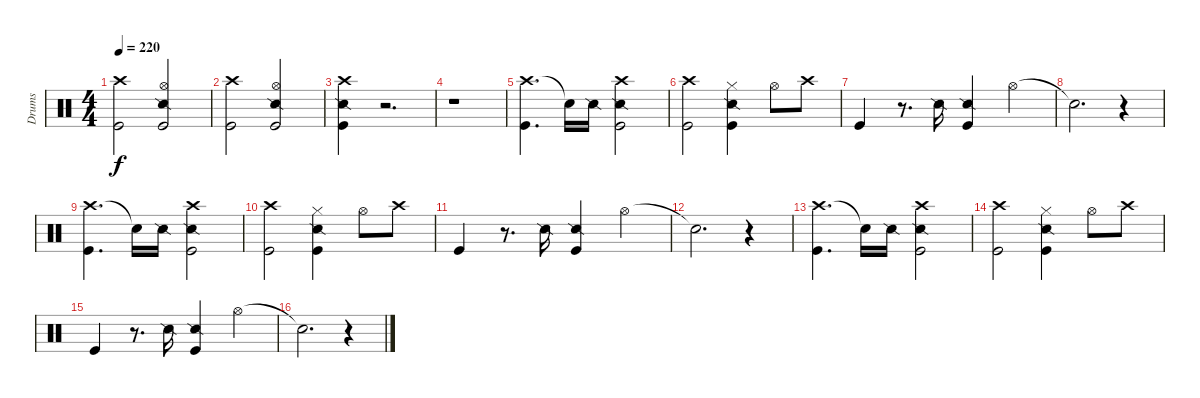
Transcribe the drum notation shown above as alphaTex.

\track ("Drums" "Drums") {instrument percussion}
\staff {score}
\articulation defaults
\ts (4 4)
\tempo 220
\clef neutral
\ks c
("Crash high (hit)" "Kick (hit)").2{dy f} ("Hi-Hat (open)" "Snare (side stick) 2" "Kick (hit)").2 |
("Crash high (hit)" "Kick (hit)").2 ("Hi-Hat (open)" "Snare (side stick) 2" "Kick (hit)").2 |
("Crash high (hit)" "Snare (side stick) 2" "Kick (hit)").4 r.2{d} |
r.1 |
("Crash high (hit)" "Kick (hit)").4{d} "Snare (hit)"{t}.16 "Snare (side stick) 2".16 ("Crash high (hit)" "Snare (side stick) 2" "Kick (hit)").2 |
("Crash high (hit)" "Kick (hit)").2 ("Hi-Hat (closed)" "Snare (side stick) 2" "Kick (hit)").4 "Hi-Hat (open)".8 "Crash high (hit)".8 |
"Kick (hit)".4 r.8{d} "Snare (side stick) 2".16 ("Snare (side stick) 2" "Kick (hit)").4 "Hi-Hat (open)".4 |
"Snare (hit)"{t}.2{d} r.4 |
("Crash high (hit)" "Kick (hit)").4{d} "Snare (hit)"{t}.16 "Snare (side stick) 2".16 ("Crash high (hit)" "Snare (side stick) 2" "Kick (hit)").2 |
("Crash high (hit)" "Kick (hit)").2 ("Hi-Hat (closed)" "Snare (side stick) 2" "Kick (hit)").4 "Hi-Hat (open)".8 "Crash high (hit)".8 |
"Kick (hit)".4 r.8{d} "Snare (side stick) 2".16 ("Snare (side stick) 2" "Kick (hit)").4 "Hi-Hat (open)".4 |
"Snare (hit)"{t}.2{d} r.4 |
("Crash high (hit)" "Kick (hit)").4{d} "Snare (hit)"{t}.16 "Snare (side stick) 2".16 ("Crash high (hit)" "Snare (side stick) 2" "Kick (hit)").2 |
("Crash high (hit)" "Kick (hit)").2 ("Hi-Hat (closed)" "Snare (side stick) 2" "Kick (hit)").4 "Hi-Hat (open)".8 "Crash high (hit)".8 |
"Kick (hit)".4 r.8{d} "Snare (side stick) 2".16 ("Snare (side stick) 2" "Kick (hit)").4 "Hi-Hat (open)".4 |
"Snare (hit)"{t}.2{d} r.4
